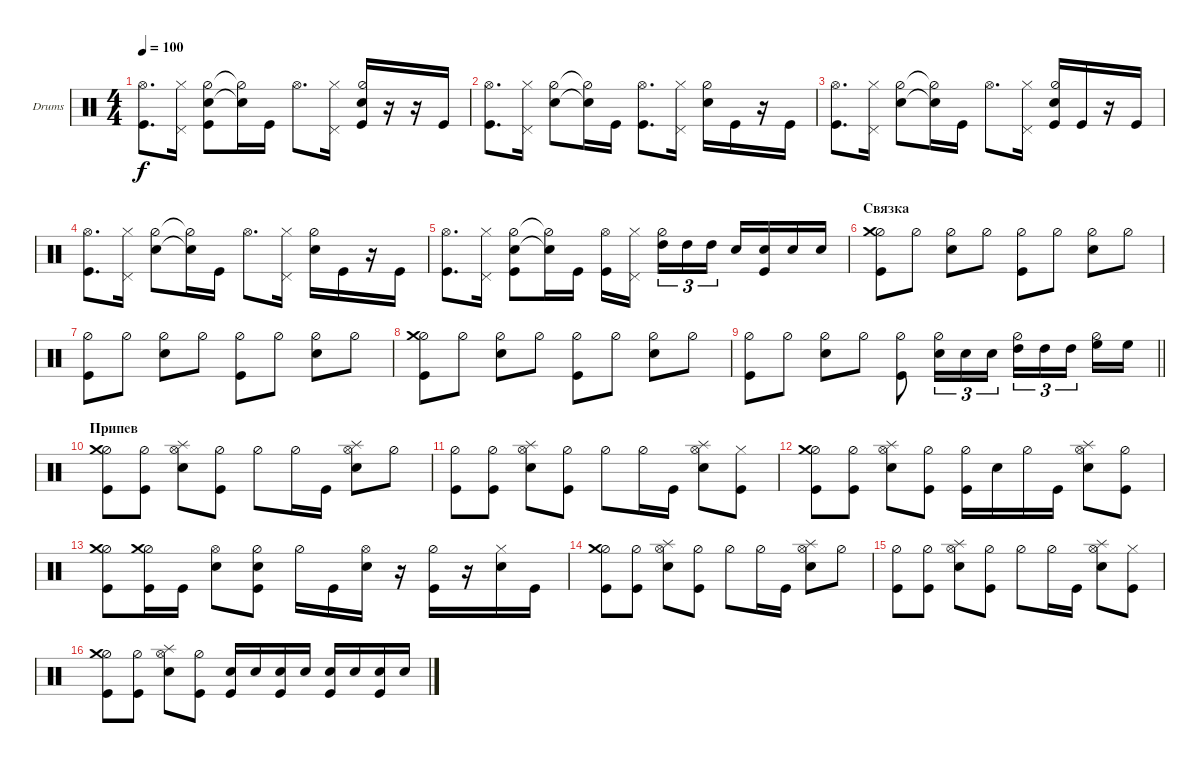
\bracketExtendMode groupsimilarinstruments
\firstSystemTrackNameOrientation horizontal
\otherSystemsTrackNameOrientation horizontal
\track ("Drumkit" "Drums") {instrument percussion}
\staff {score}
\articulation defaults
\ts (4 4)
\tempo 100
\clef neutral
\ks c
("Hi-Hat (open)" "Kick (hit)").8{d dy f} ("Hi-Hat (closed)" "Pedal Hi-Hat (hit)").16 ("Hi-Hat (half)" "Snare (hit) 2" "Kick (hit)").8 ("Hi-Hat (half)"{t} "Snare (hit) 2"{t}).16 "Kick (hit)".16 "Hi-Hat (open)".8{d} ("Hi-Hat (closed)" "Pedal Hi-Hat (hit)").16 ("Hi-Hat (half)" "Snare (hit) 2" "Kick (hit)").16 r.16 r.16 "Kick (hit)".16 |
("Hi-Hat (open)" "Kick (hit)").8{d} ("Hi-Hat (closed)" "Pedal Hi-Hat (hit)").16 ("Hi-Hat (half)" "Snare (hit) 2").8 ("Hi-Hat (half)"{t} "Snare (hit) 2"{t}).16 "Kick (hit)".16 ("Hi-Hat (open)" "Kick (hit)").8{d} ("Hi-Hat (closed)" "Pedal Hi-Hat (hit)").16 ("Hi-Hat (half)" "Snare (hit) 2").16 "Kick (hit)".16 r.16 "Kick (hit)".16 |
("Hi-Hat (open)" "Kick (hit)").8{d} ("Hi-Hat (closed)" "Pedal Hi-Hat (hit)").16 ("Hi-Hat (half)" "Snare (hit) 2").8 ("Hi-Hat (half)"{t} "Snare (hit) 2"{t}).16 "Kick (hit)".16 "Hi-Hat (open)".8{d} ("Hi-Hat (closed)" "Pedal Hi-Hat (hit)").16 ("Hi-Hat (half)" "Snare (hit) 2" "Kick (hit)").16 "Kick (hit)".16 r.16 "Kick (hit)".16 |
("Hi-Hat (open)" "Kick (hit)").8{d} ("Hi-Hat (closed)" "Pedal Hi-Hat (hit)").16 ("Hi-Hat (half)" "Snare (hit) 2").8 ("Hi-Hat (half)"{t} "Snare (hit) 2"{t}).16 "Kick (hit)".16 "Hi-Hat (open)".8{d} ("Hi-Hat (closed)" "Pedal Hi-Hat (hit)").16 ("Hi-Hat (half)" "Snare (hit) 2").16 "Kick (hit)".16 r.16 "Kick (hit)".16 |
("Hi-Hat (open)" "Kick (hit)").8{d} ("Hi-Hat (closed)" "Pedal Hi-Hat (hit)").16 ("Hi-Hat (half)" "Snare (hit) 2" "Kick (hit)").8 ("Hi-Hat (half)"{t} "Snare (hit) 2"{t}).16 "Kick (hit)".16 ("Hi-Hat (open)" "Kick (hit)").16 ("Hi-Hat (closed)" "Pedal Hi-Hat (hit)").16 ("Hi-Hat (half)" "High Tom (hit)").16{tu (3 2)} "High Tom (hit)".16{tu (3 2)} "High Tom (hit)".16{tu (3 2)} "Snare (hit) 2".16 ("Kick (hit)" "Snare (hit) 2").16 "Snare (hit) 2".16 "Snare (hit) 2".16 |
\section ("" "Связка")
("Hi-Hat (half)" "Kick (hit)" "Crash medium (hit)").8 "Hi-Hat (half)".8 ("Hi-Hat (half)" "Snare (hit) 2").8 "Hi-Hat (half)".8 ("Hi-Hat (half)" "Kick (hit)").8 "Hi-Hat (half)".8 ("Hi-Hat (half)" "Snare (hit) 2").8 "Hi-Hat (half)".8 |
("Hi-Hat (half)" "Kick (hit)").8 "Hi-Hat (half)".8 ("Hi-Hat (half)" "Snare (hit) 2").8 "Hi-Hat (half)".8 ("Hi-Hat (half)" "Kick (hit)").8 "Hi-Hat (half)".8 ("Hi-Hat (half)" "Snare (hit) 2").8 "Hi-Hat (half)".8 |
("Hi-Hat (half)" "Kick (hit)" "Crash medium (hit)").8 "Hi-Hat (half)".8 ("Hi-Hat (half)" "Snare (hit) 2").8 "Hi-Hat (half)".8 ("Hi-Hat (half)" "Kick (hit)").8 "Hi-Hat (half)".8 ("Hi-Hat (half)" "Snare (hit) 2").8 "Hi-Hat (half)".8 |
\barLineRight lightlight
("Hi-Hat (half)" "Kick (hit)").8 "Hi-Hat (half)".8 ("Hi-Hat (half)" "Snare (hit) 2").8 "Hi-Hat (half)".8 ("Hi-Hat (half)" "Kick (hit)").8 ("Hi-Hat (half)" "Snare (hit) 2").16{tu (3 2)} "Snare (hit) 2".16{tu (3 2)} "Snare (hit) 2".16{tu (3 2)} ("Hi-Hat (half)" "High Tom (hit)").16{tu (3 2)} "High Tom (hit)".16{tu (3 2)} "High Tom (hit)".16{tu (3 2)} ("Hi-Hat (half)" "High Floor Tom (hit)").16 "High Floor Tom (hit)".16 |
\section ("" "Припев")
("Hi-Hat (half)" "Kick (hit)" "Crash medium (hit)").8 ("Kick (hit)" "Hi-Hat (half)").8 ("Hi-Hat (open)" "Snare (hit) 2" "Splash (hit)").8 ("Kick (hit)" "Hi-Hat (half)").8 "Hi-Hat (half)".8 "Hi-Hat (half)".16 "Kick (hit)".16 ("Hi-Hat (open)" "Snare (hit) 2" "Splash (hit)").8 "Hi-Hat (half)".8 |
("Hi-Hat (half)" "Kick (hit)").8 ("Kick (hit)" "Hi-Hat (half)").8 ("Hi-Hat (open)" "Snare (hit) 2" "Splash (hit)").8 ("Kick (hit)" "Hi-Hat (half)").8 "Hi-Hat (half)".8 "Hi-Hat (half)".16 "Kick (hit)".16 ("Hi-Hat (open)" "Snare (hit) 2" "Splash (hit)").8 ("Kick (hit)" "Hi-Hat (closed)").8 |
("Hi-Hat (half)" "Kick (hit)" "Crash medium (hit)").8 ("Kick (hit)" "Hi-Hat (half)").8 ("Hi-Hat (open)" "Snare (hit) 2" "Splash (hit)").8 ("Kick (hit)" "Hi-Hat (half)").8 ("Hi-Hat (half)" "Kick (hit)").16 "Snare (hit) 2".16 "Hi-Hat (half)".16 "Kick (hit)".16 ("Hi-Hat (open)" "Snare (hit) 2" "Splash (hit)").8 ("Kick (hit)" "Hi-Hat (half)").8 |
("Hi-Hat (half)" "Kick (hit)" "Crash medium (hit)").8 ("Kick (hit)" "Hi-Hat (half)" "Crash medium (hit)").16 "Kick (hit)".16 ("Hi-Hat (open)" "Snare (hit) 2").8 ("Kick (hit)" "Hi-Hat (half)" "Snare (hit) 2").8 "Hi-Hat (half)".16 "Kick (hit)".16 ("Snare (hit) 2" "Hi-Hat (open)").16 r.16 ("Kick (hit)" "Hi-Hat (half)").16 r.16 ("Snare (hit) 2" "Hi-Hat (closed)").16 "Kick (hit)".16 |
("Hi-Hat (half)" "Kick (hit)" "Crash medium (hit)").8 ("Kick (hit)" "Hi-Hat (half)").8 ("Hi-Hat (open)" "Snare (hit) 2" "Splash (hit)").8 ("Kick (hit)" "Hi-Hat (half)").8 "Hi-Hat (half)".8 "Hi-Hat (half)".16 "Kick (hit)".16 ("Hi-Hat (open)" "Snare (hit) 2" "Splash (hit)").8 "Hi-Hat (half)".8 |
("Hi-Hat (half)" "Kick (hit)").8 ("Kick (hit)" "Hi-Hat (half)").8 ("Hi-Hat (open)" "Snare (hit) 2" "Splash (hit)").8 ("Kick (hit)" "Hi-Hat (half)").8 "Hi-Hat (half)".8 "Hi-Hat (half)".16 "Kick (hit)".16 ("Hi-Hat (open)" "Snare (hit) 2" "Splash (hit)").8 ("Kick (hit)" "Hi-Hat (closed)").8 |
("Hi-Hat (half)" "Kick (hit)" "Crash medium (hit)").8 ("Kick (hit)" "Hi-Hat (half)").8 ("Hi-Hat (open)" "Snare (hit) 2" "Splash (hit)").8 ("Kick (hit)" "Hi-Hat (half)").8 ("Snare (hit) 2" "Kick (hit)").16 "Snare (hit) 2".16 ("Snare (hit) 2" "Kick (hit)").16 "Snare (hit) 2".16 ("Snare (hit) 2" "Kick (hit)").16 "Snare (hit) 2".16 ("Snare (hit) 2" "Kick (hit)").16 "Snare (hit) 2".16
